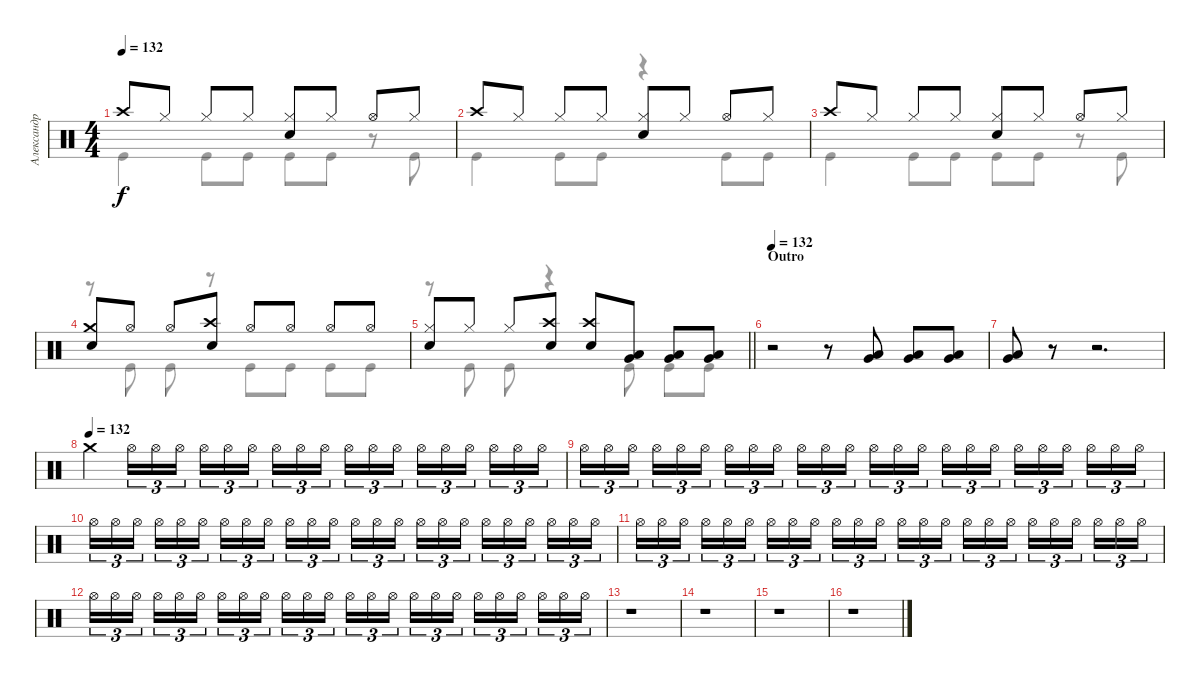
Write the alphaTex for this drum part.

\track ("Александр Манякин" "Александр ") {instrument percussion}
\staff {score}
\articulation defaults
\voice
\ts (4 4)
\tempo 132
\clef neutral
\ks c "Crash high (hit)".8{dy f} "Hi-Hat (closed)".8 "Hi-Hat (closed)".8 "Hi-Hat (closed)".8
("Hi-Hat (closed)" "Snare (hit) 2").8 "Hi-Hat (closed)".8 "Hi-Hat (open)".8 "Hi-Hat (closed)".8 |
"Crash high (hit)".8 "Hi-Hat (closed)".8 "Hi-Hat (closed)".8 "Hi-Hat (closed)".8 ("Hi-Hat (closed)" "Snare (hit) 2").8 "Hi-Hat (closed)".8 "Hi-Hat (open)".8 "Hi-Hat (closed)".8 |
"Crash high (hit)".8 "Hi-Hat (closed)".8 "Hi-Hat (closed)".8 "Hi-Hat (closed)".8 ("Hi-Hat (closed)" "Snare (hit) 2").8 "Hi-Hat (closed)".8 "Hi-Hat (open)".8 "Hi-Hat (closed)".8 |
("Crash medium (hit)" "Snare (hit) 2").8 "Hi-Hat (open)".8 "Hi-Hat (open)".8 ("Crash high (hit)" "Snare (hit) 2").8 "Hi-Hat (open)".8 "Hi-Hat (open)".8 "Hi-Hat (open)".8 "Hi-Hat (open)".8 |
\barLineRight lightlight
("Hi-Hat (closed)" "Snare (hit) 2").8 "Hi-Hat (closed)".8 "Hi-Hat (closed)".8 ("Crash high (hit)" "Snare (hit) 2").8 ("Crash high (hit)" "Snare (hit) 2").8 ("Low Tom (hit)" "Very Low Tom (hit)").8 ("Low Tom (hit)" "Very Low Tom (hit)").8 ("Low Tom (hit)" "Very Low Tom (hit)").8 |
\section ("" "Outro")
\tempo 132
r.2 r.8 ("Low Tom (hit)" "Very Low Tom (hit)").8 ("Low Tom (hit)" "Very Low Tom (hit)").8 ("Low Tom (hit)" "Very Low Tom (hit)").8 |
("Very Low Tom (hit)" "Low Tom (hit)").8 r.8 r.2{d} |
\tempo (132)
"Crash medium (hit)".4 "Hi-Hat (open)".16{tu (3 2)} "Hi-Hat (open)".16{tu (3 2)} "Hi-Hat (open)".16{tu (3 2) beam splitsecondary} "Hi-Hat (open)".16{tu (3 2)} "Hi-Hat (open)".16{tu (3 2)} "Hi-Hat (open)".16{tu (3 2)} "Hi-Hat (open)".16{tu (3 2)} "Hi-Hat (open)".16{tu (3 2)} "Hi-Hat (open)".16{tu (3 2) beam splitsecondary} "Hi-Hat (open)".16{tu (3 2)} "Hi-Hat (open)".16{tu (3 2)} "Hi-Hat (open)".16{tu (3 2)} "Hi-Hat (open)".16{tu (3 2)} "Hi-Hat (open)".16{tu (3 2)} "Hi-Hat (open)".16{tu (3 2) beam splitsecondary} "Hi-Hat (open)".16{tu (3 2)} "Hi-Hat (open)".16{tu (3 2)} "Hi-Hat (open)".16{tu (3 2)} |
"Hi-Hat (open)".16{tu (3 2)} "Hi-Hat (open)".16{tu (3 2)} "Hi-Hat (open)".16{tu (3 2) beam splitsecondary} "Hi-Hat (open)".16{tu (3 2)} "Hi-Hat (open)".16{tu (3 2)} "Hi-Hat (open)".16{tu (3 2)} "Hi-Hat (open)".16{tu (3 2)} "Hi-Hat (open)".16{tu (3 2)} "Hi-Hat (open)".16{tu (3 2) beam splitsecondary} "Hi-Hat (open)".16{tu (3 2)} "Hi-Hat (open)".16{tu (3 2)} "Hi-Hat (open)".16{tu (3 2)} "Hi-Hat (open)".16{tu (3 2)} "Hi-Hat (open)".16{tu (3 2)} "Hi-Hat (open)".16{tu (3 2) beam splitsecondary} "Hi-Hat (open)".16{tu (3 2)} "Hi-Hat (open)".16{tu (3 2)} "Hi-Hat (open)".16{tu (3 2)} "Hi-Hat (open)".16{tu (3 2)} "Hi-Hat (open)".16{tu (3 2)} "Hi-Hat (open)".16{tu (3 2) beam splitsecondary} "Hi-Hat (open)".16{tu (3 2)} "Hi-Hat (open)".16{tu (3 2)} "Hi-Hat (open)".16{tu (3 2)} |
"Hi-Hat (open)".16{tu (3 2)} "Hi-Hat (open)".16{tu (3 2)} "Hi-Hat (open)".16{tu (3 2) beam splitsecondary} "Hi-Hat (open)".16{tu (3 2)} "Hi-Hat (open)".16{tu (3 2)} "Hi-Hat (open)".16{tu (3 2)} "Hi-Hat (open)".16{tu (3 2)} "Hi-Hat (open)".16{tu (3 2)} "Hi-Hat (open)".16{tu (3 2) beam splitsecondary} "Hi-Hat (open)".16{tu (3 2)} "Hi-Hat (open)".16{tu (3 2)} "Hi-Hat (open)".16{tu (3 2)} "Hi-Hat (open)".16{tu (3 2)} "Hi-Hat (open)".16{tu (3 2)} "Hi-Hat (open)".16{tu (3 2) beam splitsecondary} "Hi-Hat (open)".16{tu (3 2)} "Hi-Hat (open)".16{tu (3 2)} "Hi-Hat (open)".16{tu (3 2)} "Hi-Hat (open)".16{tu (3 2)} "Hi-Hat (open)".16{tu (3 2)} "Hi-Hat (open)".16{tu (3 2) beam splitsecondary} "Hi-Hat (open)".16{tu (3 2)} "Hi-Hat (open)".16{tu (3 2)} "Hi-Hat (open)".16{tu (3 2)} |
"Hi-Hat (open)".16{tu (3 2)} "Hi-Hat (open)".16{tu (3 2)} "Hi-Hat (open)".16{tu (3 2) beam splitsecondary} "Hi-Hat (open)".16{tu (3 2)} "Hi-Hat (open)".16{tu (3 2)} "Hi-Hat (open)".16{tu (3 2)} "Hi-Hat (open)".16{tu (3 2)} "Hi-Hat (open)".16{tu (3 2)} "Hi-Hat (open)".16{tu (3 2) beam splitsecondary} "Hi-Hat (open)".16{tu (3 2)} "Hi-Hat (open)".16{tu (3 2)} "Hi-Hat (open)".16{tu (3 2)} "Hi-Hat (open)".16{tu (3 2)} "Hi-Hat (open)".16{tu (3 2)} "Hi-Hat (open)".16{tu (3 2) beam splitsecondary} "Hi-Hat (open)".16{tu (3 2)} "Hi-Hat (open)".16{tu (3 2)} "Hi-Hat (open)".16{tu (3 2)} "Hi-Hat (open)".16{tu (3 2)} "Hi-Hat (open)".16{tu (3 2)} "Hi-Hat (open)".16{tu (3 2) beam splitsecondary} "Hi-Hat (open)".16{tu (3 2)} "Hi-Hat (open)".16{tu (3 2)} "Hi-Hat (open)".16{tu (3 2)} |
"Hi-Hat (open)".16{tu (3 2)} "Hi-Hat (open)".16{tu (3 2)} "Hi-Hat (open)".16{tu (3 2) beam splitsecondary} "Hi-Hat (open)".16{tu (3 2)} "Hi-Hat (open)".16{tu (3 2)} "Hi-Hat (open)".16{tu (3 2)} "Hi-Hat (open)".16{tu (3 2)} "Hi-Hat (open)".16{tu (3 2)} "Hi-Hat (open)".16{tu (3 2) beam splitsecondary} "Hi-Hat (open)".16{tu (3 2)} "Hi-Hat (open)".16{tu (3 2)} "Hi-Hat (open)".16{tu (3 2)} "Hi-Hat (open)".16{tu (3 2)} "Hi-Hat (open)".16{tu (3 2)} "Hi-Hat (open)".16{tu (3 2) beam splitsecondary} "Hi-Hat (open)".16{tu (3 2)} "Hi-Hat (open)".16{tu (3 2)} "Hi-Hat (open)".16{tu (3 2)} "Hi-Hat (open)".16{tu (3 2)} "Hi-Hat (open)".16{tu (3 2)} "Hi-Hat (open)".16{tu (3 2) beam splitsecondary} "Hi-Hat (open)".16{tu (3 2)} "Hi-Hat (open)".16{tu (3 2)} "Hi-Hat (open)".16{tu (3 2)} |
r.1 |
r.1 |
r.1 |
r.1
\voice
\clef neutral
\ottava regular
\simile none
\ks c "Kick (hit)".4{dy f} "Kick (hit)".8 "Kick (hit)".8 "Kick (hit)".8 "Kick (hit)".8
r.8 "Kick (hit)".8 |
"Kick (hit)".4 "Kick (hit)".8 "Kick (hit)".8 r.4 "Kick (hit)".8 "Kick (hit)".8 |
"Kick (hit)".4 "Kick (hit)".8 "Kick (hit)".8 "Kick (hit)".8 "Kick (hit)".8 r.8 "Kick (hit)".8 |
r.8 "Kick (hit)".8 "Kick (hit)".8 r.8 "Kick (hit)".8 "Kick (hit)".8 "Kick (hit)".8 "Kick (hit)".8 |
\barLineRight lightlight
r.8 "Kick (hit)".8 "Kick (hit)".8 r.4 "Kick (hit)".8 "Kick (hit)".8 "Kick (hit)".8 |
|
|
|
|
|
|
|
|
|
|
